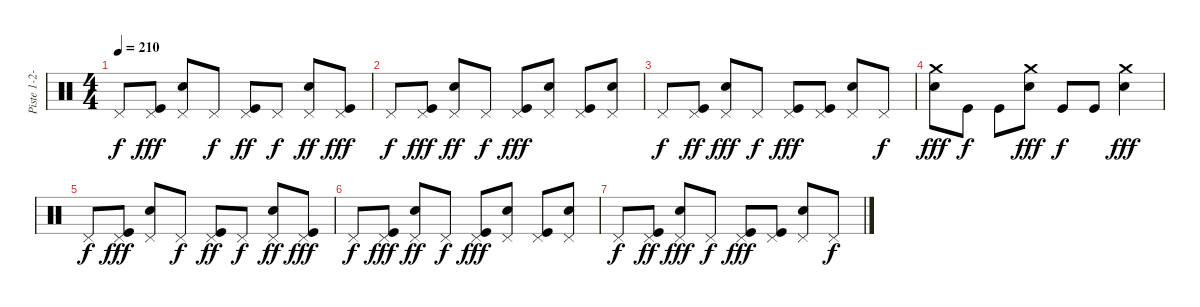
\track ("Piste 1-2-3-4" "Piste 1-2-") {instrument percussion}
\staff {score}
\articulation defaults
\ts (4 4)
\tempo 210
\clef neutral
\ks c "Pedal Hi-Hat (hit)".8{dy f}
("Pedal Hi-Hat (hit)" "Kick (hit)").8{dy fff} ("Pedal Hi-Hat (hit)" "Snare (hit) 2").8 "Pedal Hi-Hat (hit)".8{dy f} ("Pedal Hi-Hat (hit)" "Kick (hit)").8{dy ff} "Pedal Hi-Hat (hit)".8{dy f} ("Pedal Hi-Hat (hit)" "Snare (hit) 2").8{dy ff} ("Pedal Hi-Hat (hit)" "Kick (hit)").8{dy fff} |
"Pedal Hi-Hat (hit)".8{dy f} ("Pedal Hi-Hat (hit)" "Kick (hit)").8{dy fff} ("Pedal Hi-Hat (hit)" "Snare (hit) 2").8{dy ff} "Pedal Hi-Hat (hit)".8{dy f} ("Pedal Hi-Hat (hit)" "Kick (hit)").8{dy fff} ("Pedal Hi-Hat (hit)" "Snare (hit) 2").8 ("Pedal Hi-Hat (hit)" "Kick (hit)").8 ("Pedal Hi-Hat (hit)" "Snare (hit) 2").8 |
"Pedal Hi-Hat (hit)".8{dy f} ("Pedal Hi-Hat (hit)" "Kick (hit)").8{dy ff} ("Pedal Hi-Hat (hit)" "Snare (hit) 2").8{dy fff} "Pedal Hi-Hat (hit)".8{dy f} ("Pedal Hi-Hat (hit)" "Kick (hit)").8{dy fff} ("Pedal Hi-Hat (hit)" "Kick (hit)").8 ("Pedal Hi-Hat (hit)" "Snare (hit) 2").8 "Pedal Hi-Hat (hit)".8{dy f} |
("Crash medium (hit)" "Snare (hit) 2").8{dy fff} "Kick (hit)".8{dy f} "Kick (hit)".8 ("Crash medium (hit)" "Snare (hit) 2").8{dy fff} "Kick (hit)".8{dy f} "Kick (hit)".8 ("Crash medium (hit)" "Snare (hit) 2").4{dy fff} |
"Pedal Hi-Hat (hit)".8{dy f} ("Pedal Hi-Hat (hit)" "Kick (hit)").8{dy fff} ("Pedal Hi-Hat (hit)" "Snare (hit) 2").8 "Pedal Hi-Hat (hit)".8{dy f} ("Pedal Hi-Hat (hit)" "Kick (hit)").8{dy ff} "Pedal Hi-Hat (hit)".8{dy f} ("Pedal Hi-Hat (hit)" "Snare (hit) 2").8{dy ff} ("Pedal Hi-Hat (hit)" "Kick (hit)").8{dy fff} |
"Pedal Hi-Hat (hit)".8{dy f} ("Pedal Hi-Hat (hit)" "Kick (hit)").8{dy fff} ("Pedal Hi-Hat (hit)" "Snare (hit) 2").8{dy ff} "Pedal Hi-Hat (hit)".8{dy f} ("Pedal Hi-Hat (hit)" "Kick (hit)").8{dy fff} ("Pedal Hi-Hat (hit)" "Snare (hit) 2").8 ("Pedal Hi-Hat (hit)" "Kick (hit)").8 ("Pedal Hi-Hat (hit)" "Snare (hit) 2").8 |
"Pedal Hi-Hat (hit)".8{dy f} ("Pedal Hi-Hat (hit)" "Kick (hit)").8{dy ff} ("Pedal Hi-Hat (hit)" "Snare (hit) 2").8{dy fff} "Pedal Hi-Hat (hit)".8{dy f} ("Pedal Hi-Hat (hit)" "Kick (hit)").8{dy fff} ("Pedal Hi-Hat (hit)" "Kick (hit)").8 ("Pedal Hi-Hat (hit)" "Snare (hit) 2").8 "Pedal Hi-Hat (hit)".8{dy f}
